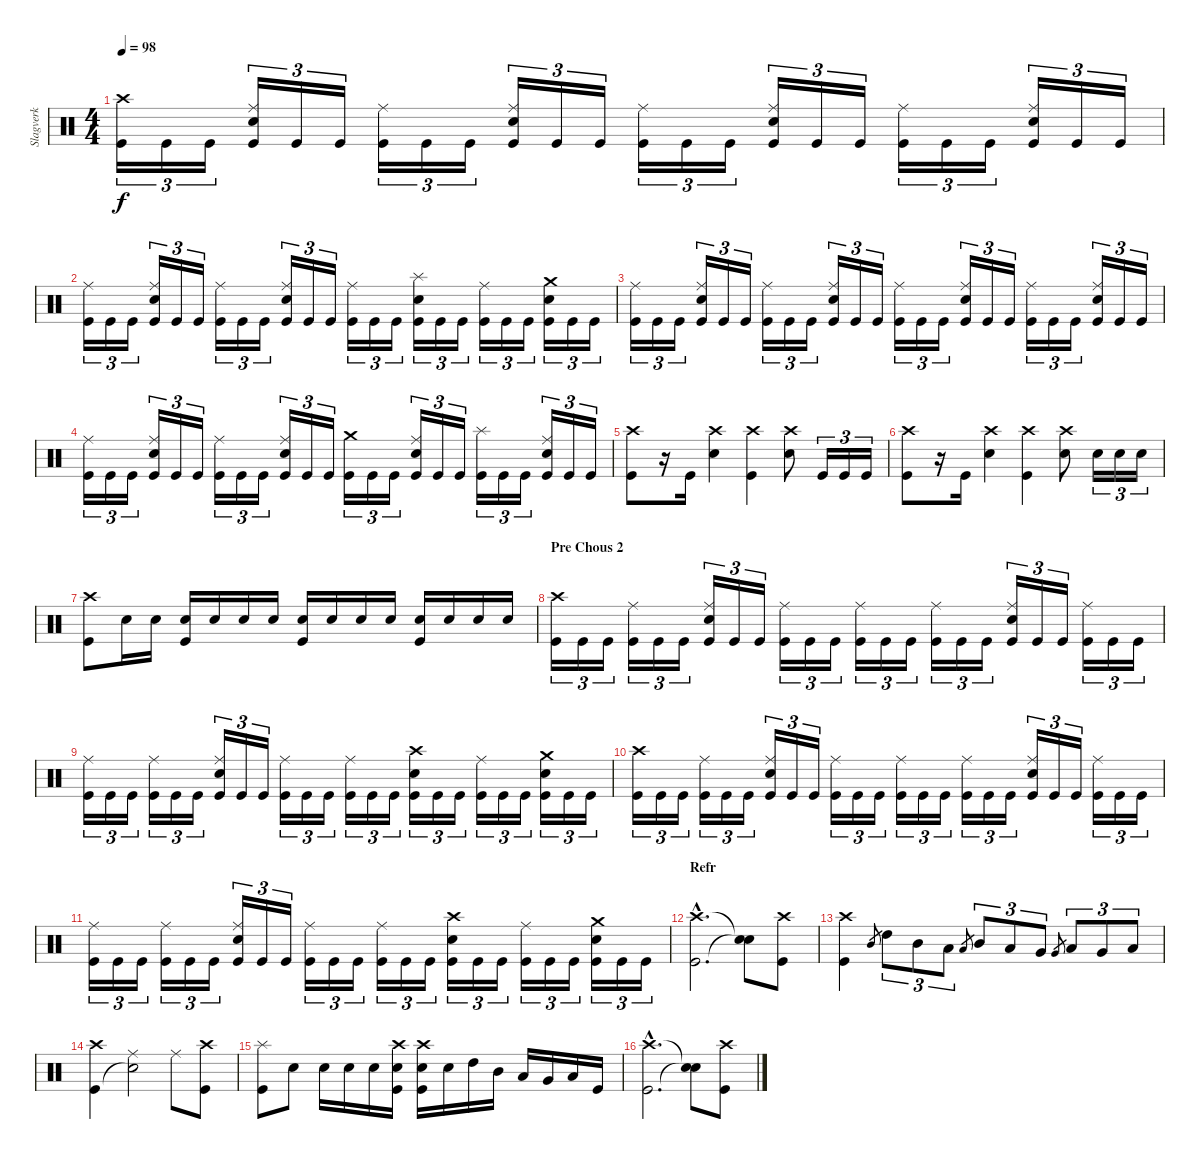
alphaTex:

\track ("Slagverk" "Slagverk") {instrument percussion}
\staff {score}
\articulation defaults
\ts (4 4)
\tempo 98
\clef neutral
\ks c
("Crash high (hit)" "Kick (hit)").16{tu (3 2) dy f} "Kick (hit)".16{tu (3 2)} "Kick (hit)".16{tu (3 2)} ("Ride (middle)" "Electric Snare (hit)" "Kick (hit)").16{tu (3 2)} "Kick (hit)".16{tu (3 2)} "Kick (hit)".16{tu (3 2)} ("Ride (middle)" "Kick (hit)").16{tu (3 2)} "Kick (hit)".16{tu (3 2)} "Kick (hit)".16{tu (3 2)} ("Ride (middle)" "Electric Snare (hit)" "Kick (hit)").16{tu (3 2)} "Kick (hit)".16{tu (3 2)} "Kick (hit)".16{tu (3 2)} ("Ride (middle)" "Kick (hit)").16{tu (3 2)} "Kick (hit)".16{tu (3 2)} "Kick (hit)".16{tu (3 2)} ("Ride (middle)" "Electric Snare (hit)" "Kick (hit)").16{tu (3 2)} "Kick (hit)".16{tu (3 2)} "Kick (hit)".16{tu (3 2)} ("Ride (middle)" "Kick (hit)").16{tu (3 2)} "Kick (hit)".16{tu (3 2)} "Kick (hit)".16{tu (3 2)} ("Ride (middle)" "Electric Snare (hit)" "Kick (hit)").16{tu (3 2)} "Kick (hit)".16{tu (3 2)} "Kick (hit)".16{tu (3 2)} |
("Ride (middle)" "Kick (hit)").16{tu (3 2)} "Kick (hit)".16{tu (3 2)} "Kick (hit)".16{tu (3 2)} ("Ride (middle)" "Electric Snare (hit)" "Kick (hit)").16{tu (3 2)} "Kick (hit)".16{tu (3 2)} "Kick (hit)".16{tu (3 2)} ("Ride (middle)" "Kick (hit)").16{tu (3 2)} "Kick (hit)".16{tu (3 2)} "Kick (hit)".16{tu (3 2)} ("Ride (middle)" "Electric Snare (hit)" "Kick (hit)").16{tu (3 2)} "Kick (hit)".16{tu (3 2)} "Kick (hit)".16{tu (3 2)} ("Ride (middle)" "Kick (hit)").16{tu (3 2)} "Kick (hit)".16{tu (3 2)} "Kick (hit)".16{tu (3 2)} ("Splash (hit)" "Electric Snare (hit)" "Kick (hit)").16{tu (3 2)} "Kick (hit)".16{tu (3 2)} "Kick (hit)".16{tu (3 2)} ("Ride (middle)" "Kick (hit)").16{tu (3 2)} "Kick (hit)".16{tu (3 2)} "Kick (hit)".16{tu (3 2)} ("Crash medium (hit)" "Electric Snare (hit)" "Kick (hit)").16{tu (3 2)} "Kick (hit)".16{tu (3 2)} "Kick (hit)".16{tu (3 2)} |
("Ride (middle)" "Kick (hit)").16{tu (3 2)} "Kick (hit)".16{tu (3 2)} "Kick (hit)".16{tu (3 2)} ("Ride (middle)" "Electric Snare (hit)" "Kick (hit)").16{tu (3 2)} "Kick (hit)".16{tu (3 2)} "Kick (hit)".16{tu (3 2)} ("Ride (middle)" "Kick (hit)").16{tu (3 2)} "Kick (hit)".16{tu (3 2)} "Kick (hit)".16{tu (3 2)} ("Ride (middle)" "Electric Snare (hit)" "Kick (hit)").16{tu (3 2)} "Kick (hit)".16{tu (3 2)} "Kick (hit)".16{tu (3 2)} ("Ride (middle)" "Kick (hit)").16{tu (3 2)} "Kick (hit)".16{tu (3 2)} "Kick (hit)".16{tu (3 2)} ("Ride (middle)" "Electric Snare (hit)" "Kick (hit)").16{tu (3 2)} "Kick (hit)".16{tu (3 2)} "Kick (hit)".16{tu (3 2)} ("Ride (middle)" "Kick (hit)").16{tu (3 2)} "Kick (hit)".16{tu (3 2)} "Kick (hit)".16{tu (3 2)} ("Ride (middle)" "Electric Snare (hit)" "Kick (hit)").16{tu (3 2)} "Kick (hit)".16{tu (3 2)} "Kick (hit)".16{tu (3 2)} |
("Ride (middle)" "Kick (hit)").16{tu (3 2)} "Kick (hit)".16{tu (3 2)} "Kick (hit)".16{tu (3 2)} ("Ride (middle)" "Electric Snare (hit)" "Kick (hit)").16{tu (3 2)} "Kick (hit)".16{tu (3 2)} "Kick (hit)".16{tu (3 2)} ("Ride (middle)" "Kick (hit)").16{tu (3 2)} "Kick (hit)".16{tu (3 2)} "Kick (hit)".16{tu (3 2)} ("Ride (middle)" "Electric Snare (hit)" "Kick (hit)").16{tu (3 2)} "Kick (hit)".16{tu (3 2)} "Kick (hit)".16{tu (3 2)} ("Crash medium (hit)" "Kick (hit)").16{tu (3 2)} "Kick (hit)".16{tu (3 2)} "Kick (hit)".16{tu (3 2)} ("Ride (middle)" "Electric Snare (hit)" "Kick (hit)").16{tu (3 2)} "Kick (hit)".16{tu (3 2)} "Kick (hit)".16{tu (3 2)} ("Splash (hit)" "Kick (hit)").16{tu (3 2)} "Kick (hit)".16{tu (3 2)} "Kick (hit)".16{tu (3 2)} ("Ride (middle)" "Electric Snare (hit)" "Kick (hit)").16{tu (3 2)} "Kick (hit)".16{tu (3 2)} "Kick (hit)".16{tu (3 2)} |
("Crash high (hit)" "Kick (hit)").8 r.16 "Kick (hit)".16 ("Crash high (hit)" "Electric Snare (hit)").4 ("Crash high (hit)" "Kick (hit)").4 ("Crash high (hit)" "Electric Snare (hit)").8 "Kick (hit)".16{tu (3 2)} "Kick (hit)".16{tu (3 2)} "Kick (hit)".16{tu (3 2)} |
("Crash high (hit)" "Kick (hit)").8 r.16 "Kick (hit)".16 ("Crash high (hit)" "Electric Snare (hit)").4 ("Crash high (hit)" "Kick (hit)").4 ("Crash high (hit)" "Electric Snare (hit)").8 "Electric Snare (hit)".16{tu (3 2)} "Electric Snare (hit)".16{tu (3 2)} "Electric Snare (hit)".16{tu (3 2)} |
("Crash high (hit)" "Kick (hit)").8 "Electric Snare (hit)".16 "Electric Snare (hit)".16 ("Electric Snare (hit)" "Kick (hit)").16 "Electric Snare (hit)".16 "Electric Snare (hit)".16 "Electric Snare (hit)".16 ("Electric Snare (hit)" "Kick (hit)").16 "Electric Snare (hit)".16 "Electric Snare (hit)".16 "Electric Snare (hit)".16 ("Electric Snare (hit)" "Kick (hit)").16 "Electric Snare (hit)".16 "Electric Snare (hit)".16 "Electric Snare (hit)".16 |
\section ("" "Pre Chous 2")
("Crash high (hit)" "Kick (hit)").16{tu (3 2)} "Kick (hit)".16{tu (3 2)} "Kick (hit)".16{tu (3 2)} ("Ride (middle)" "Kick (hit)").16{tu (3 2)} "Kick (hit)".16{tu (3 2)} "Kick (hit)".16{tu (3 2)} ("Ride (middle)" "Electric Snare (hit)" "Kick (hit)").16{tu (3 2)} "Kick (hit)".16{tu (3 2)} "Kick (hit)".16{tu (3 2)} ("Ride (middle)" "Kick (hit)").16{tu (3 2)} "Kick (hit)".16{tu (3 2)} "Kick (hit)".16{tu (3 2)} ("Ride (middle)" "Kick (hit)").16{tu (3 2)} "Kick (hit)".16{tu (3 2)} "Kick (hit)".16{tu (3 2)} ("Ride (middle)" "Kick (hit)").16{tu (3 2)} "Kick (hit)".16{tu (3 2)} "Kick (hit)".16{tu (3 2)} ("Ride (middle)" "Electric Snare (hit)" "Kick (hit)").16{tu (3 2)} "Kick (hit)".16{tu (3 2)} "Kick (hit)".16{tu (3 2)} ("Ride (middle)" "Kick (hit)").16{tu (3 2)} "Kick (hit)".16{tu (3 2)} "Kick (hit)".16{tu (3 2)} |
("Ride (middle)" "Kick (hit)").16{tu (3 2)} "Kick (hit)".16{tu (3 2)} "Kick (hit)".16{tu (3 2)} ("Ride (middle)" "Kick (hit)").16{tu (3 2)} "Kick (hit)".16{tu (3 2)} "Kick (hit)".16{tu (3 2)} ("Ride (middle)" "Electric Snare (hit)" "Kick (hit)").16{tu (3 2)} "Kick (hit)".16{tu (3 2)} "Kick (hit)".16{tu (3 2)} ("Ride (middle)" "Kick (hit)").16{tu (3 2)} "Kick (hit)".16{tu (3 2)} "Kick (hit)".16{tu (3 2)} ("Ride (middle)" "Kick (hit)").16{tu (3 2)} "Kick (hit)".16{tu (3 2)} "Kick (hit)".16{tu (3 2)} ("Crash high (hit)" "Electric Snare (hit)" "Kick (hit)").16{tu (3 2)} "Kick (hit)".16{tu (3 2)} "Kick (hit)".16{tu (3 2)} ("Ride (middle)" "Kick (hit)").16{tu (3 2)} "Kick (hit)".16{tu (3 2)} "Kick (hit)".16{tu (3 2)} ("Crash medium (hit)" "Electric Snare (hit)" "Kick (hit)").16{tu (3 2)} "Kick (hit)".16{tu (3 2)} "Kick (hit)".16{tu (3 2)} |
("Crash high (hit)" "Kick (hit)").16{tu (3 2)} "Kick (hit)".16{tu (3 2)} "Kick (hit)".16{tu (3 2)} ("Ride (middle)" "Kick (hit)").16{tu (3 2)} "Kick (hit)".16{tu (3 2)} "Kick (hit)".16{tu (3 2)} ("Ride (middle)" "Electric Snare (hit)" "Kick (hit)").16{tu (3 2)} "Kick (hit)".16{tu (3 2)} "Kick (hit)".16{tu (3 2)} ("Ride (middle)" "Kick (hit)").16{tu (3 2)} "Kick (hit)".16{tu (3 2)} "Kick (hit)".16{tu (3 2)} ("Ride (middle)" "Kick (hit)").16{tu (3 2)} "Kick (hit)".16{tu (3 2)} "Kick (hit)".16{tu (3 2)} ("Ride (middle)" "Kick (hit)").16{tu (3 2)} "Kick (hit)".16{tu (3 2)} "Kick (hit)".16{tu (3 2)} ("Ride (middle)" "Electric Snare (hit)" "Kick (hit)").16{tu (3 2)} "Kick (hit)".16{tu (3 2)} "Kick (hit)".16{tu (3 2)} ("Ride (middle)" "Kick (hit)").16{tu (3 2)} "Kick (hit)".16{tu (3 2)} "Kick (hit)".16{tu (3 2)} |
("Ride (middle)" "Kick (hit)").16{tu (3 2)} "Kick (hit)".16{tu (3 2)} "Kick (hit)".16{tu (3 2)} ("Ride (middle)" "Kick (hit)").16{tu (3 2)} "Kick (hit)".16{tu (3 2)} "Kick (hit)".16{tu (3 2)} ("Ride (middle)" "Electric Snare (hit)" "Kick (hit)").16{tu (3 2)} "Kick (hit)".16{tu (3 2)} "Kick (hit)".16{tu (3 2)} ("Ride (middle)" "Kick (hit)").16{tu (3 2)} "Kick (hit)".16{tu (3 2)} "Kick (hit)".16{tu (3 2)} ("Ride (middle)" "Kick (hit)").16{tu (3 2)} "Kick (hit)".16{tu (3 2)} "Kick (hit)".16{tu (3 2)} ("Crash high (hit)" "Electric Snare (hit)" "Kick (hit)").16{tu (3 2)} "Kick (hit)".16{tu (3 2)} "Kick (hit)".16{tu (3 2)} ("Ride (middle)" "Kick (hit)").16{tu (3 2)} "Kick (hit)".16{tu (3 2)} "Kick (hit)".16{tu (3 2)} ("Crash medium (hit)" "Electric Snare (hit)" "Kick (hit)").16{tu (3 2)} "Kick (hit)".16{tu (3 2)} "Kick (hit)".16{tu (3 2)} |
\section ("" "Refr")
("Crash high (hit)"{hac} "Kick (hit)"{hac}).2{d} ("Snare (hit)"{t} "Snare (hit)"{t}).8 ("Crash high (hit)" "Kick (hit)").8 |
("Crash high (hit)" "Kick (hit)").4 "Mid Tom (hit)".8{gr} "High Tom (hit)".8{tu (3 2)} "Mid Tom (hit)".8{tu (3 2)} "Low Tom (hit)".8{tu (3 2)} "Low Tom (hit)"{sl}.8{gr} "Mid Tom (hit)".8{tu (3 2)} "Low Tom (hit)".8{tu (3 2)} "Very Low Tom (hit)".8{tu (3 2)} "Very Low Tom (hit)"{sl}.8{gr} "Low Tom (hit)".8{tu (3 2)} "Very Low Tom (hit)".8{tu (3 2)} "Low Floor Tom (hit)".8{tu (3 2)} |
("Crash high (hit)" "Kick (hit)").4 ("Ride (middle)" "Snare (hit)"{t}).2 "Ride (middle)".8 ("Crash high (hit)" "Kick (hit)").8 |
("Splash (hit)" "Kick (hit)").8 "Electric Snare (hit)".8 "Electric Snare (hit)".16 "Electric Snare (hit)".16 "Electric Snare (hit)".16 ("Crash high (hit)" "Electric Snare (hit)" "Kick (hit)").16 ("Crash high (hit)" "Electric Snare (hit)" "Kick (hit)").16 "Electric Snare (hit)".16 "High Tom (hit)".16 "Mid Tom (hit)".16 "Low Tom (hit)".16 "Very Low Tom (hit)".16 "Low Floor Tom (hit)".16 "Kick (hit)".16 |
("Crash high (hit)"{hac} "Kick (hit)"{hac}).2{d} ("Snare (hit)"{t} "Snare (hit)"{t}).8 ("Crash high (hit)" "Kick (hit)").8
